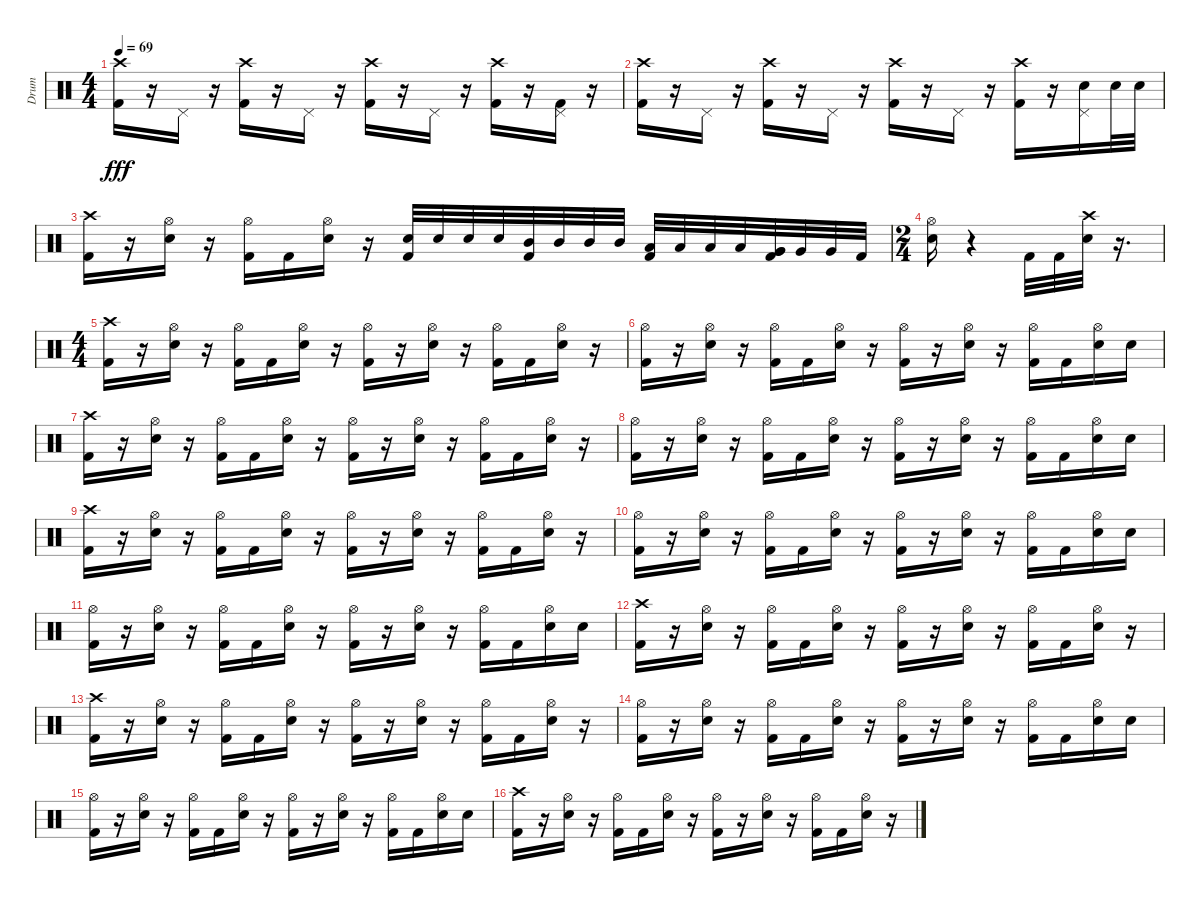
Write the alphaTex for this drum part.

\track ("Drum" "Drum") {instrument percussion}
\staff {score}
\articulation defaults
\ts (4 4)
\tempo 69
\clef neutral
\ks c
("Kick (hit) 2" "Crash high (hit)").16{dy fff} r.16 "Pedal Hi-Hat (hit)".16 r.16 ("Crash high (hit)" "Kick (hit) 2").16 r.16 "Pedal Hi-Hat (hit)".16 r.16 ("Crash high (hit)" "Kick (hit) 2").16 r.16 "Pedal Hi-Hat (hit)".16 r.16 ("Crash high (hit)" "Kick (hit) 2").16 r.16 ("Pedal Hi-Hat (hit)" "Kick (hit) 2").16 r.16 |
("Crash high (hit)" "Kick (hit) 2").16 r.16 "Pedal Hi-Hat (hit)".16 r.16 ("Kick (hit) 2" "Crash high (hit)").16 r.16 "Pedal Hi-Hat (hit)".16 r.16 ("Kick (hit) 2" "Crash high (hit)").16 r.16 "Pedal Hi-Hat (hit)".16 r.16 ("Crash high (hit)" "Kick (hit) 2").16 r.16 ("Electric Snare (hit)" "Pedal Hi-Hat (hit)").16 "Electric Snare (hit)".32 "Electric Snare (hit)".32 |
("Crash high (hit)" "Kick (hit) 2").16 r.16 ("Electric Snare (hit)" "Hi-Hat (open)").16 r.16 ("Kick (hit) 2" "Hi-Hat (open)").16 "Kick (hit) 2".16 ("Hi-Hat (open)" "Electric Snare (hit)").16 r.16 ("Electric Snare (hit)" "Kick (hit) 2").32 "Electric Snare (hit)".32 "Electric Snare (hit)".32 "Electric Snare (hit)".32 ("Mid Tom (hit)" "Kick (hit) 2").32 "Mid Tom (hit)".32 "Mid Tom (hit)".32 "Mid Tom (hit)".32 ("Low Tom (hit)" "Kick (hit) 2").32 "Low Tom (hit)".32 "Low Tom (hit)".32 "Low Tom (hit)".32 ("Very Low Tom (hit)" "Very Low Tom (hit)" "Kick (hit) 2").32 "Very Low Tom (hit)".32 "Very Low Tom (hit)".32 "Kick (hit) 2".32 |
\ts (2 4)
("Hi-Hat (open)" "Electric Snare (hit)").16 r.4 "Kick (hit) 2".32 "Kick (hit) 2".32 ("Electric Snare (hit)" "Crash high (hit)").32 r.16{d} |
\ts (4 4)
("Crash high (hit)" "Kick (hit) 2").16 r.16 ("Hi-Hat (open)" "Electric Snare (hit)").16 r.16 ("Kick (hit) 2" "Hi-Hat (open)").16 "Kick (hit) 2".16 ("Electric Snare (hit)" "Hi-Hat (open)").16 r.16 ("Hi-Hat (open)" "Kick (hit) 2").16 r.16 ("Hi-Hat (open)" "Electric Snare (hit)").16 r.16 ("Kick (hit) 2" "Hi-Hat (open)").16 "Kick (hit) 2".16 ("Hi-Hat (open)" "Electric Snare (hit)").16 r.16 |
("Hi-Hat (open)" "Kick (hit) 2").16 r.16 ("Electric Snare (hit)" "Hi-Hat (open)").16 r.16 ("Kick (hit) 2" "Hi-Hat (open)").16 "Kick (hit) 2".16 ("Electric Snare (hit)" "Hi-Hat (open)").16 r.16 ("Hi-Hat (open)" "Kick (hit) 2").16 r.16 ("Electric Snare (hit)" "Hi-Hat (open)").16 r.16 ("Kick (hit) 2" "Hi-Hat (open)").16 "Kick (hit) 2".16 ("Electric Snare (hit)" "Hi-Hat (open)").16 "Electric Snare (hit)".16 |
("Crash high (hit)" "Kick (hit) 2").16 r.16 ("Hi-Hat (open)" "Electric Snare (hit)").16 r.16 ("Kick (hit) 2" "Hi-Hat (open)").16 "Kick (hit) 2".16 ("Electric Snare (hit)" "Hi-Hat (open)").16 r.16 ("Hi-Hat (open)" "Kick (hit) 2").16 r.16 ("Hi-Hat (open)" "Electric Snare (hit)").16 r.16 ("Kick (hit) 2" "Hi-Hat (open)").16 "Kick (hit) 2".16 ("Hi-Hat (open)" "Electric Snare (hit)").16 r.16 |
("Hi-Hat (open)" "Kick (hit) 2").16 r.16 ("Electric Snare (hit)" "Hi-Hat (open)").16 r.16 ("Kick (hit) 2" "Hi-Hat (open)").16 "Kick (hit) 2".16 ("Electric Snare (hit)" "Hi-Hat (open)").16 r.16 ("Hi-Hat (open)" "Kick (hit) 2").16 r.16 ("Electric Snare (hit)" "Hi-Hat (open)").16 r.16 ("Kick (hit) 2" "Hi-Hat (open)").16 "Kick (hit) 2".16 ("Electric Snare (hit)" "Hi-Hat (open)").16 "Electric Snare (hit)".16 |
("Kick (hit) 2" "Crash high (hit)").16 r.16 ("Hi-Hat (open)" "Electric Snare (hit)").16 r.16 ("Kick (hit) 2" "Hi-Hat (open)").16 "Kick (hit) 2".16 ("Electric Snare (hit)" "Hi-Hat (open)").16 r.16 ("Hi-Hat (open)" "Kick (hit) 2").16 r.16 ("Electric Snare (hit)" "Hi-Hat (open)").16 r.16 ("Hi-Hat (open)" "Kick (hit) 2").16 "Kick (hit) 2".16 ("Electric Snare (hit)" "Hi-Hat (open)").16 r.16 |
("Hi-Hat (open)" "Kick (hit) 2").16 r.16 ("Electric Snare (hit)" "Hi-Hat (open)").16 r.16 ("Kick (hit) 2" "Hi-Hat (open)").16 "Kick (hit) 2".16 ("Electric Snare (hit)" "Hi-Hat (open)").16 r.16 ("Hi-Hat (open)" "Kick (hit) 2").16 r.16 ("Electric Snare (hit)" "Hi-Hat (open)").16 r.16 ("Kick (hit) 2" "Hi-Hat (open)").16 "Kick (hit) 2".16 ("Electric Snare (hit)" "Hi-Hat (open)").16 "Electric Snare (hit)".16 |
("Hi-Hat (open)" "Kick (hit) 2").16 r.16 ("Electric Snare (hit)" "Hi-Hat (open)").16 r.16 ("Kick (hit) 2" "Hi-Hat (open)").16 "Kick (hit) 2".16 ("Electric Snare (hit)" "Hi-Hat (open)").16 r.16 ("Hi-Hat (open)" "Kick (hit) 2").16 r.16 ("Electric Snare (hit)" "Hi-Hat (open)").16 r.16 ("Kick (hit) 2" "Hi-Hat (open)").16 "Kick (hit) 2".16 ("Electric Snare (hit)" "Hi-Hat (open)").16 "Electric Snare (hit)".16 |
("Crash high (hit)" "Kick (hit) 2").16 r.16 ("Hi-Hat (open)" "Electric Snare (hit)").16 r.16 ("Kick (hit) 2" "Hi-Hat (open)").16 "Kick (hit) 2".16 ("Electric Snare (hit)" "Hi-Hat (open)").16 r.16 ("Hi-Hat (open)" "Kick (hit) 2").16 r.16 ("Hi-Hat (open)" "Electric Snare (hit)").16 r.16 ("Kick (hit) 2" "Hi-Hat (open)").16 "Kick (hit) 2".16 ("Hi-Hat (open)" "Electric Snare (hit)").16 r.16 |
("Kick (hit) 2" "Crash high (hit)").16 r.16 ("Hi-Hat (open)" "Electric Snare (hit)").16 r.16 ("Kick (hit) 2" "Hi-Hat (open)").16 "Kick (hit) 2".16 ("Electric Snare (hit)" "Hi-Hat (open)").16 r.16 ("Hi-Hat (open)" "Kick (hit) 2").16 r.16 ("Electric Snare (hit)" "Hi-Hat (open)").16 r.16 ("Hi-Hat (open)" "Kick (hit) 2").16 "Kick (hit) 2".16 ("Electric Snare (hit)" "Hi-Hat (open)").16 r.16 |
("Hi-Hat (open)" "Kick (hit) 2").16 r.16 ("Electric Snare (hit)" "Hi-Hat (open)").16 r.16 ("Kick (hit) 2" "Hi-Hat (open)").16 "Kick (hit) 2".16 ("Electric Snare (hit)" "Hi-Hat (open)").16 r.16 ("Hi-Hat (open)" "Kick (hit) 2").16 r.16 ("Electric Snare (hit)" "Hi-Hat (open)").16 r.16 ("Kick (hit) 2" "Hi-Hat (open)").16 "Kick (hit) 2".16 ("Electric Snare (hit)" "Hi-Hat (open)").16 "Electric Snare (hit)".16 |
("Hi-Hat (open)" "Kick (hit) 2").16 r.16 ("Electric Snare (hit)" "Hi-Hat (open)").16 r.16 ("Kick (hit) 2" "Hi-Hat (open)").16 "Kick (hit) 2".16 ("Electric Snare (hit)" "Hi-Hat (open)").16 r.16 ("Hi-Hat (open)" "Kick (hit) 2").16 r.16 ("Electric Snare (hit)" "Hi-Hat (open)").16 r.16 ("Kick (hit) 2" "Hi-Hat (open)").16 "Kick (hit) 2".16 ("Electric Snare (hit)" "Hi-Hat (open)").16 "Electric Snare (hit)".16 |
("Kick (hit) 2" "Crash high (hit)").16 r.16 ("Hi-Hat (open)" "Electric Snare (hit)").16 r.16 ("Kick (hit) 2" "Hi-Hat (open)").16 "Kick (hit) 2".16 ("Hi-Hat (open)" "Electric Snare (hit)").16 r.16 ("Kick (hit) 2" "Hi-Hat (open)").16 r.16 ("Hi-Hat (open)" "Electric Snare (hit)").16 r.16 ("Kick (hit) 2" "Hi-Hat (open)").16 "Kick (hit) 2".16 ("Hi-Hat (open)" "Electric Snare (hit)").16 r.16
